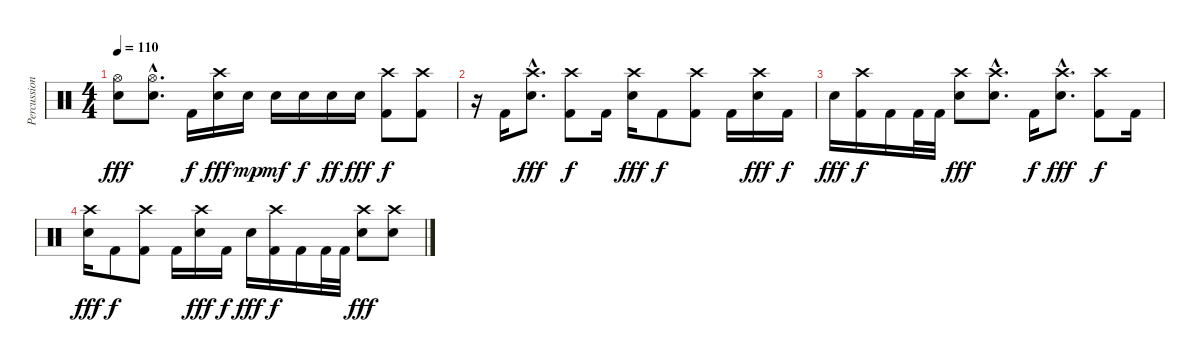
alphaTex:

\track ("Percussions" "Percussion") {instrument percussion}
\staff {score}
\articulation defaults
\ts (4 4)
\tempo 110
\clef neutral
\ks c
("Hi-Hat (open)" "Snare (hit) 2").8{dy fff} ("Hi-Hat (open)"{hac} "Snare (hit) 2"{hac}).8{d} "Kick (hit) 2".16{dy f} ("Crash high (hit)" "Snare (hit) 2").16{dy fff} "Snare (hit) 2".16{dy mp} "Snare (hit) 2".16{dy mf} "Snare (hit) 2".16{dy f} "Snare (hit) 2".16{dy ff} "Snare (hit) 2".16{dy fff} ("Crash high (hit)" "Kick (hit) 2").8{dy f} ("Crash high (hit)" "Kick (hit) 2").8 |
r.16 "Kick (hit) 2".16{volume 13} ("Crash high (hit)"{hac} "Snare (hit) 2"{hac}).8{d dy fff volume 12} ("Crash high (hit)" "Kick (hit) 2").8{dy f volume 12} "Kick (hit) 2".16{volume 11} ("Crash high (hit)" "Snare (hit) 2").16{dy fff volume 11} "Kick (hit) 2".8{dy f volume 10} ("Crash high (hit)" "Kick (hit) 2").8{volume 10} "Kick (hit) 2".16{volume 9} ("Crash high (hit)" "Snare (hit) 2").16{dy fff volume 9} "Kick (hit) 2".16{dy f volume 8} |
"Snare (hit) 2".16{dy fff} ("Crash high (hit)" "Kick (hit) 2").16{dy f volume 8} "Kick (hit) 2".16{volume 7} "Kick (hit) 2".32{volume 7} "Kick (hit) 2".32 ("Crash high (hit)" "Snare (hit) 2").8{dy fff volume 7} ("Crash high (hit)"{hac} "Snare (hit) 2"{hac}).8{d volume 6} "Kick (hit) 2".16{dy f volume 5} ("Crash high (hit)"{hac} "Snare (hit) 2"{hac}).8{d dy fff volume 5} ("Crash high (hit)" "Kick (hit) 2").8{dy f volume 4} "Kick (hit) 2".16{volume 3} |
("Crash high (hit)" "Snare (hit) 2").16{dy fff} "Kick (hit) 2".8{dy f volume 3} ("Crash high (hit)" "Kick (hit) 2").8{volume 2} "Kick (hit) 2".16{volume 1} ("Crash high (hit)" "Snare (hit) 2").16{dy fff volume 1} "Kick (hit) 2".16{dy f volume 1} "Snare (hit) 2".16{dy fff volume 0} ("Crash high (hit)" "Kick (hit) 2").16{dy f volume 0} "Kick (hit) 2".16{volume 0} "Kick (hit) 2".32 "Kick (hit) 2".32 ("Crash high (hit)" "Snare (hit) 2").8{dy fff} ("Crash high (hit)" "Snare (hit) 2").8
